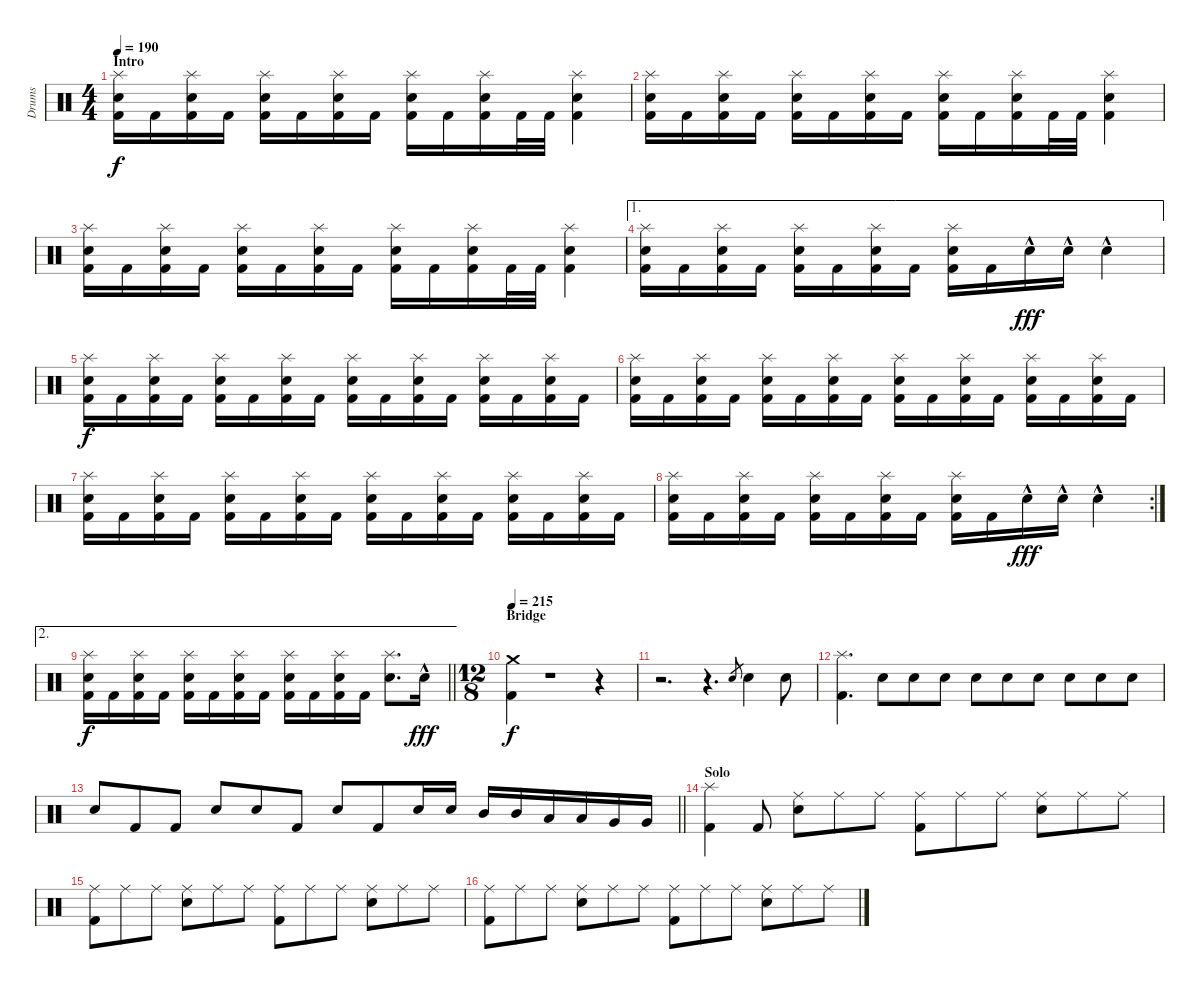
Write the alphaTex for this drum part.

\track ("Drums" "Drums") {instrument percussion bank 127}
\staff {score}
\articulation defaults
\ts (4 4)
\section ("" "Intro")
\tempo 190
\clef neutral
\ks c
("Splash (hit)" "Electric Snare (hit)" "Kick (hit) 2").16{dy f} "Kick (hit) 2".16 ("Splash (hit)" "Electric Snare (hit)" "Kick (hit) 2").16 "Kick (hit) 2".16 ("Splash (hit)" "Electric Snare (hit)" "Kick (hit) 2").16 "Kick (hit) 2".16 ("Splash (hit)" "Electric Snare (hit)" "Kick (hit) 2").16 "Kick (hit) 2".16 ("Splash (hit)" "Electric Snare (hit)" "Kick (hit) 2").16 "Kick (hit) 2".16 ("Splash (hit)" "Electric Snare (hit)" "Kick (hit) 2").16 "Kick (hit) 2".32 "Kick (hit) 2".32 ("Splash (hit)" "Electric Snare (hit)" "Kick (hit) 2").4 |
("Splash (hit)" "Electric Snare (hit)" "Kick (hit) 2").16 "Kick (hit) 2".16 ("Splash (hit)" "Electric Snare (hit)" "Kick (hit) 2").16 "Kick (hit) 2".16 ("Splash (hit)" "Electric Snare (hit)" "Kick (hit) 2").16 "Kick (hit) 2".16 ("Splash (hit)" "Electric Snare (hit)" "Kick (hit) 2").16 "Kick (hit) 2".16 ("Splash (hit)" "Electric Snare (hit)" "Kick (hit) 2").16 "Kick (hit) 2".16 ("Splash (hit)" "Electric Snare (hit)" "Kick (hit) 2").16 "Kick (hit) 2".32 "Kick (hit) 2".32 ("Splash (hit)" "Electric Snare (hit)" "Kick (hit) 2").4 |
("Splash (hit)" "Electric Snare (hit)" "Kick (hit) 2").16 "Kick (hit) 2".16 ("Splash (hit)" "Electric Snare (hit)" "Kick (hit) 2").16 "Kick (hit) 2".16 ("Splash (hit)" "Electric Snare (hit)" "Kick (hit) 2").16 "Kick (hit) 2".16 ("Splash (hit)" "Electric Snare (hit)" "Kick (hit) 2").16 "Kick (hit) 2".16 ("Splash (hit)" "Electric Snare (hit)" "Kick (hit) 2").16 "Kick (hit) 2".16 ("Splash (hit)" "Electric Snare (hit)" "Kick (hit) 2").16 "Kick (hit) 2".32 "Kick (hit) 2".32 ("Splash (hit)" "Electric Snare (hit)" "Kick (hit) 2").4 |
\ae 1
("Splash (hit)" "Electric Snare (hit)" "Kick (hit) 2").16 "Kick (hit) 2".16 ("Splash (hit)" "Electric Snare (hit)" "Kick (hit) 2").16 "Kick (hit) 2".16 ("Splash (hit)" "Electric Snare (hit)" "Kick (hit) 2").16 "Kick (hit) 2".16 ("Splash (hit)" "Electric Snare (hit)" "Kick (hit) 2").16 "Kick (hit) 2".16 ("Splash (hit)" "Electric Snare (hit)" "Kick (hit) 2").16 "Kick (hit) 2".16 "Electric Snare (hit)"{hac}.16{dy fff} "Electric Snare (hit)"{hac}.16 "Electric Snare (hit)"{hac}.4 |
("Splash (hit)" "Electric Snare (hit)" "Kick (hit) 2").16{dy f} "Kick (hit) 2".16 ("Splash (hit)" "Electric Snare (hit)" "Kick (hit) 2").16 "Kick (hit) 2".16 ("Splash (hit)" "Electric Snare (hit)" "Kick (hit) 2").16 "Kick (hit) 2".16 ("Splash (hit)" "Electric Snare (hit)" "Kick (hit) 2").16 "Kick (hit) 2".16 ("Splash (hit)" "Electric Snare (hit)" "Kick (hit) 2").16 "Kick (hit) 2".16 ("Splash (hit)" "Electric Snare (hit)" "Kick (hit) 2").16 "Kick (hit) 2".16 ("Splash (hit)" "Electric Snare (hit)" "Kick (hit) 2").16 "Kick (hit) 2".16 ("Splash (hit)" "Electric Snare (hit)" "Kick (hit) 2").16 "Kick (hit) 2".16 |
("Splash (hit)" "Electric Snare (hit)" "Kick (hit) 2").16 "Kick (hit) 2".16 ("Splash (hit)" "Electric Snare (hit)" "Kick (hit) 2").16 "Kick (hit) 2".16 ("Splash (hit)" "Electric Snare (hit)" "Kick (hit) 2").16 "Kick (hit) 2".16 ("Splash (hit)" "Electric Snare (hit)" "Kick (hit) 2").16 "Kick (hit) 2".16 ("Splash (hit)" "Electric Snare (hit)" "Kick (hit) 2").16 "Kick (hit) 2".16 ("Splash (hit)" "Electric Snare (hit)" "Kick (hit) 2").16 "Kick (hit) 2".16 ("Splash (hit)" "Electric Snare (hit)" "Kick (hit) 2").16 "Kick (hit) 2".16 ("Splash (hit)" "Electric Snare (hit)" "Kick (hit) 2").16 "Kick (hit) 2".16 |
("Splash (hit)" "Electric Snare (hit)" "Kick (hit) 2").16 "Kick (hit) 2".16 ("Splash (hit)" "Electric Snare (hit)" "Kick (hit) 2").16 "Kick (hit) 2".16 ("Splash (hit)" "Electric Snare (hit)" "Kick (hit) 2").16 "Kick (hit) 2".16 ("Splash (hit)" "Electric Snare (hit)" "Kick (hit) 2").16 "Kick (hit) 2".16 ("Splash (hit)" "Electric Snare (hit)" "Kick (hit) 2").16 "Kick (hit) 2".16 ("Splash (hit)" "Electric Snare (hit)" "Kick (hit) 2").16 "Kick (hit) 2".16 ("Splash (hit)" "Electric Snare (hit)" "Kick (hit) 2").16 "Kick (hit) 2".16 ("Splash (hit)" "Electric Snare (hit)" "Kick (hit) 2").16 "Kick (hit) 2".16 |
\rc 2
("Splash (hit)" "Electric Snare (hit)" "Kick (hit) 2").16 "Kick (hit) 2".16 ("Splash (hit)" "Electric Snare (hit)" "Kick (hit) 2").16 "Kick (hit) 2".16 ("Splash (hit)" "Electric Snare (hit)" "Kick (hit) 2").16 "Kick (hit) 2".16 ("Splash (hit)" "Electric Snare (hit)" "Kick (hit) 2").16 "Kick (hit) 2".16 ("Splash (hit)" "Electric Snare (hit)" "Kick (hit) 2").16 "Kick (hit) 2".16 "Electric Snare (hit)"{hac}.16{dy fff} "Electric Snare (hit)"{hac}.16 "Electric Snare (hit)"{hac}.4 |
\ae 2
\barLineRight lightlight
("Splash (hit)" "Electric Snare (hit)" "Kick (hit) 2").16{dy f} "Kick (hit) 2".16 ("Splash (hit)" "Electric Snare (hit)" "Kick (hit) 2").16 "Kick (hit) 2".16 ("Splash (hit)" "Electric Snare (hit)" "Kick (hit) 2").16 "Kick (hit) 2".16 ("Splash (hit)" "Electric Snare (hit)" "Kick (hit) 2").16 "Kick (hit) 2".16 ("Splash (hit)" "Electric Snare (hit)" "Kick (hit) 2").16 "Kick (hit) 2".16 ("Splash (hit)" "Electric Snare (hit)" "Kick (hit) 2").16 "Kick (hit) 2".16 ("Splash (hit)" "Electric Snare (hit)").8{d} "Electric Snare (hit)"{hac}.16{dy fff} |
\ts (12 8)
\section ("" "Bridge")
\tempo 215
("Crash medium (hit)" "Kick (hit) 2").4{dy f} r.1 r.4 |
r.2{d} r.4{d} "Electric Snare (hit)".8{gr} "Electric Snare (hit)".4 "Electric Snare (hit)".8 |
("Splash (hit)" "Kick (hit) 2").4{d} "Electric Snare (hit)".8{volume 5} "Electric Snare (hit)".8{volume 12} "Electric Snare (hit)".8 "Electric Snare (hit)".8 "Electric Snare (hit)".8 "Electric Snare (hit)".8 "Electric Snare (hit)".8 "Electric Snare (hit)".8 "Electric Snare (hit)".8 |
\barLineRight lightlight "Electric Snare (hit)".8 "Kick (hit) 2".8 "Kick (hit) 2".8 "Electric Snare (hit)".8 "Electric Snare (hit)".8 "Kick (hit) 2".8 "Electric Snare (hit)".8 "Kick (hit) 2".8 "Electric Snare (hit)".16 "Electric Snare (hit)".16 "Mid Tom (hit)".16 "Mid Tom (hit)".16 "Low Tom (hit)".16 "Low Tom (hit)".16 "Very Low Tom (hit)".16 "Very Low Tom (hit)".16
|
\section ("" "Solo")
("Splash (hit)" "Kick (hit) 2").4 "Kick (hit) 2".8 ("Ride (middle)" "Electric Snare (hit)").8 "Ride (middle)".8 "Ride (middle)".8 ("Ride (middle)" "Kick (hit) 2").8 "Ride (middle)".8 "Ride (middle)".8 ("Ride (middle)" "Electric Snare (hit)").8 "Ride (middle)".8 "Ride (middle)".8 |
("Ride (middle)" "Kick (hit) 2").8 "Ride (middle)".8 "Ride (middle)".8 ("Ride (middle)" "Electric Snare (hit)").8 "Ride (middle)".8 "Ride (middle)".8 ("Ride (middle)" "Kick (hit) 2").8 "Ride (middle)".8 "Ride (middle)".8 ("Ride (middle)" "Electric Snare (hit)").8 "Ride (middle)".8 "Ride (middle)".8 |
("Ride (middle)" "Kick (hit) 2").8 "Ride (middle)".8 "Ride (middle)".8 ("Ride (middle)" "Electric Snare (hit)").8 "Ride (middle)".8 "Ride (middle)".8 ("Ride (middle)" "Kick (hit) 2").8 "Ride (middle)".8 "Ride (middle)".8 ("Ride (middle)" "Electric Snare (hit)").8 "Ride (middle)".8 "Ride (middle)".8
